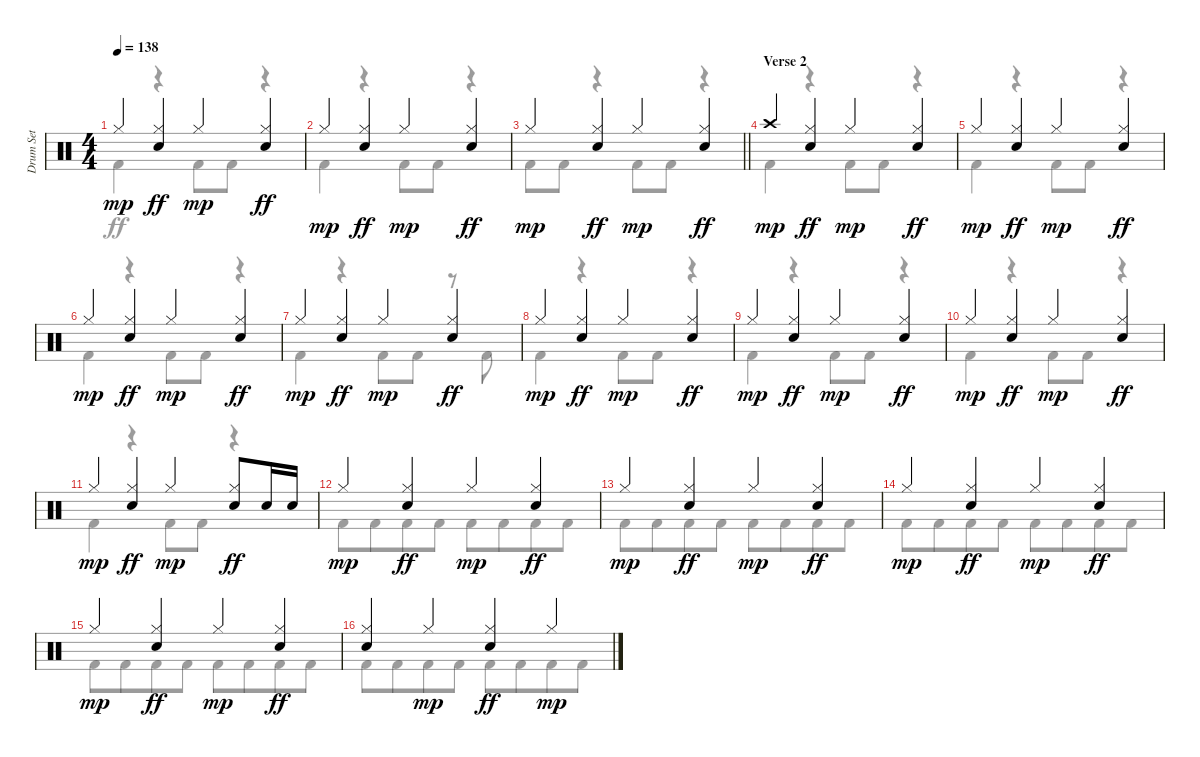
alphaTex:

\track ("Drum Set" "Drum Set") {instrument percussion}
\staff {score}
\articulation defaults
\voice
\ts (4 4)
\tempo 138
\clef neutral
\ks c "Hi-Hat (closed)".4{dy mp}
("Hi-Hat (closed)" "Electric Snare (hit)").4{dy ff} "Hi-Hat (closed)".4{dy mp} ("Hi-Hat (closed)" "Electric Snare (hit)").4{dy ff} |
"Hi-Hat (closed)".4{dy mp} ("Hi-Hat (closed)" "Electric Snare (hit)").4{dy ff} "Hi-Hat (closed)".4{dy mp} ("Hi-Hat (closed)" "Electric Snare (hit)").4{dy ff} |
\barLineRight lightlight "Hi-Hat (closed)".4{dy mp}
("Hi-Hat (closed)" "Electric Snare (hit)").4{dy ff} "Hi-Hat (closed)".4{dy mp} ("Hi-Hat (closed)" "Electric Snare (hit)").4{dy ff} |
\section ("" "Verse 2")
"Crash high (hit)".4{dy mp} ("Hi-Hat (closed)" "Electric Snare (hit)").4{dy ff} "Hi-Hat (closed)".4{dy mp} ("Hi-Hat (closed)" "Electric Snare (hit)").4{dy ff} |
"Hi-Hat (closed)".4{dy mp} ("Hi-Hat (closed)" "Electric Snare (hit)").4{dy ff} "Hi-Hat (closed)".4{dy mp} ("Hi-Hat (closed)" "Electric Snare (hit)").4{dy ff} |
"Hi-Hat (closed)".4{dy mp} ("Hi-Hat (closed)" "Electric Snare (hit)").4{dy ff} "Hi-Hat (closed)".4{dy mp} ("Hi-Hat (closed)" "Electric Snare (hit)").4{dy ff} |
"Hi-Hat (closed)".4{dy mp} ("Hi-Hat (closed)" "Electric Snare (hit)").4{dy ff} "Hi-Hat (closed)".4{dy mp} ("Hi-Hat (closed)" "Electric Snare (hit)").4{dy ff} |
"Hi-Hat (closed)".4{dy mp} ("Hi-Hat (closed)" "Electric Snare (hit)").4{dy ff} "Hi-Hat (closed)".4{dy mp} ("Hi-Hat (closed)" "Electric Snare (hit)").4{dy ff} |
"Hi-Hat (closed)".4{dy mp} ("Hi-Hat (closed)" "Electric Snare (hit)").4{dy ff} "Hi-Hat (closed)".4{dy mp} ("Hi-Hat (closed)" "Electric Snare (hit)").4{dy ff} |
"Hi-Hat (closed)".4{dy mp} ("Hi-Hat (closed)" "Electric Snare (hit)").4{dy ff} "Hi-Hat (closed)".4{dy mp} ("Hi-Hat (closed)" "Electric Snare (hit)").4{dy ff} |
"Hi-Hat (closed)".4{dy mp} ("Hi-Hat (closed)" "Electric Snare (hit)").4{dy ff} "Hi-Hat (closed)".4{dy mp} ("Hi-Hat (closed)" "Electric Snare (hit)").8{dy ff} "Electric Snare (hit)".16 "Electric Snare (hit)".16 |
"Hi-Hat (closed)".4{dy mp} ("Hi-Hat (closed)" "Electric Snare (hit)").4{dy ff} "Hi-Hat (closed)".4{dy mp} ("Hi-Hat (closed)" "Electric Snare (hit)").4{dy ff} |
"Hi-Hat (closed)".4{dy mp} ("Hi-Hat (closed)" "Electric Snare (hit)").4{dy ff} "Hi-Hat (closed)".4{dy mp} ("Hi-Hat (closed)" "Electric Snare (hit)").4{dy ff} |
"Hi-Hat (closed)".4{dy mp} ("Hi-Hat (closed)" "Electric Snare (hit)").4{dy ff} "Hi-Hat (closed)".4{dy mp} ("Hi-Hat (closed)" "Electric Snare (hit)").4{dy ff} |
"Hi-Hat (closed)".4{dy mp} ("Hi-Hat (closed)" "Electric Snare (hit)").4{dy ff} "Hi-Hat (closed)".4{dy mp} ("Hi-Hat (closed)" "Electric Snare (hit)").4{dy ff} |
("Hi-Hat (closed)" "Electric Snare (hit)").4 "Hi-Hat (closed)".4{dy mp} ("Hi-Hat (closed)" "Electric Snare (hit)").4{dy ff} "Hi-Hat (closed)".4{dy mp}
\voice
\clef neutral
\ottava regular
\simile none
\ks c "Kick (hit) 2".4{dy ff}
r.4 "Kick (hit) 2".8 "Kick (hit) 2".8 r.4 |
"Kick (hit) 2".4 r.4 "Kick (hit) 2".8 "Kick (hit) 2".8 r.4 |
\barLineRight lightlight "Kick (hit) 2".8 "Kick (hit) 2".8
r.4 "Kick (hit) 2".8 "Kick (hit) 2".8 r.4 |
"Kick (hit) 2".4 r.4 "Kick (hit) 2".8 "Kick (hit) 2".8 r.4 |
"Kick (hit) 2".4 r.4 "Kick (hit) 2".8 "Kick (hit) 2".8 r.4 |
"Kick (hit) 2".4 r.4 "Kick (hit) 2".8 "Kick (hit) 2".8 r.4 |
"Kick (hit) 2".4 r.4 "Kick (hit) 2".8 "Kick (hit) 2".8 r.8 "Kick (hit) 2".8 |
"Kick (hit) 2".4 r.4 "Kick (hit) 2".8 "Kick (hit) 2".8 r.4 |
"Kick (hit) 2".4 r.4 "Kick (hit) 2".8 "Kick (hit) 2".8 r.4 |
"Kick (hit) 2".4 r.4 "Kick (hit) 2".8 "Kick (hit) 2".8 r.4 |
"Kick (hit) 2".4 r.4 "Kick (hit) 2".8 "Kick (hit) 2".8 r.4 |
"Kick (hit) 2".8 "Kick (hit) 2".8{beam merge} "Kick (hit) 2".8 "Kick (hit) 2".8 "Kick (hit) 2".8 "Kick (hit) 2".8{beam merge} "Kick (hit) 2".8 "Kick (hit) 2".8 |
"Kick (hit) 2".8 "Kick (hit) 2".8{beam merge} "Kick (hit) 2".8 "Kick (hit) 2".8 "Kick (hit) 2".8 "Kick (hit) 2".8{beam merge} "Kick (hit) 2".8 "Kick (hit) 2".8 |
"Kick (hit) 2".8 "Kick (hit) 2".8{beam merge} "Kick (hit) 2".8 "Kick (hit) 2".8 "Kick (hit) 2".8 "Kick (hit) 2".8{beam merge} "Kick (hit) 2".8 "Kick (hit) 2".8 |
"Kick (hit) 2".8 "Kick (hit) 2".8{beam merge} "Kick (hit) 2".8 "Kick (hit) 2".8 "Kick (hit) 2".8 "Kick (hit) 2".8{beam merge} "Kick (hit) 2".8 "Kick (hit) 2".8 |
"Kick (hit) 2".8 "Kick (hit) 2".8{beam merge} "Kick (hit) 2".8 "Kick (hit) 2".8 "Kick (hit) 2".8 "Kick (hit) 2".8{beam merge} "Kick (hit) 2".8 "Kick (hit) 2".8
